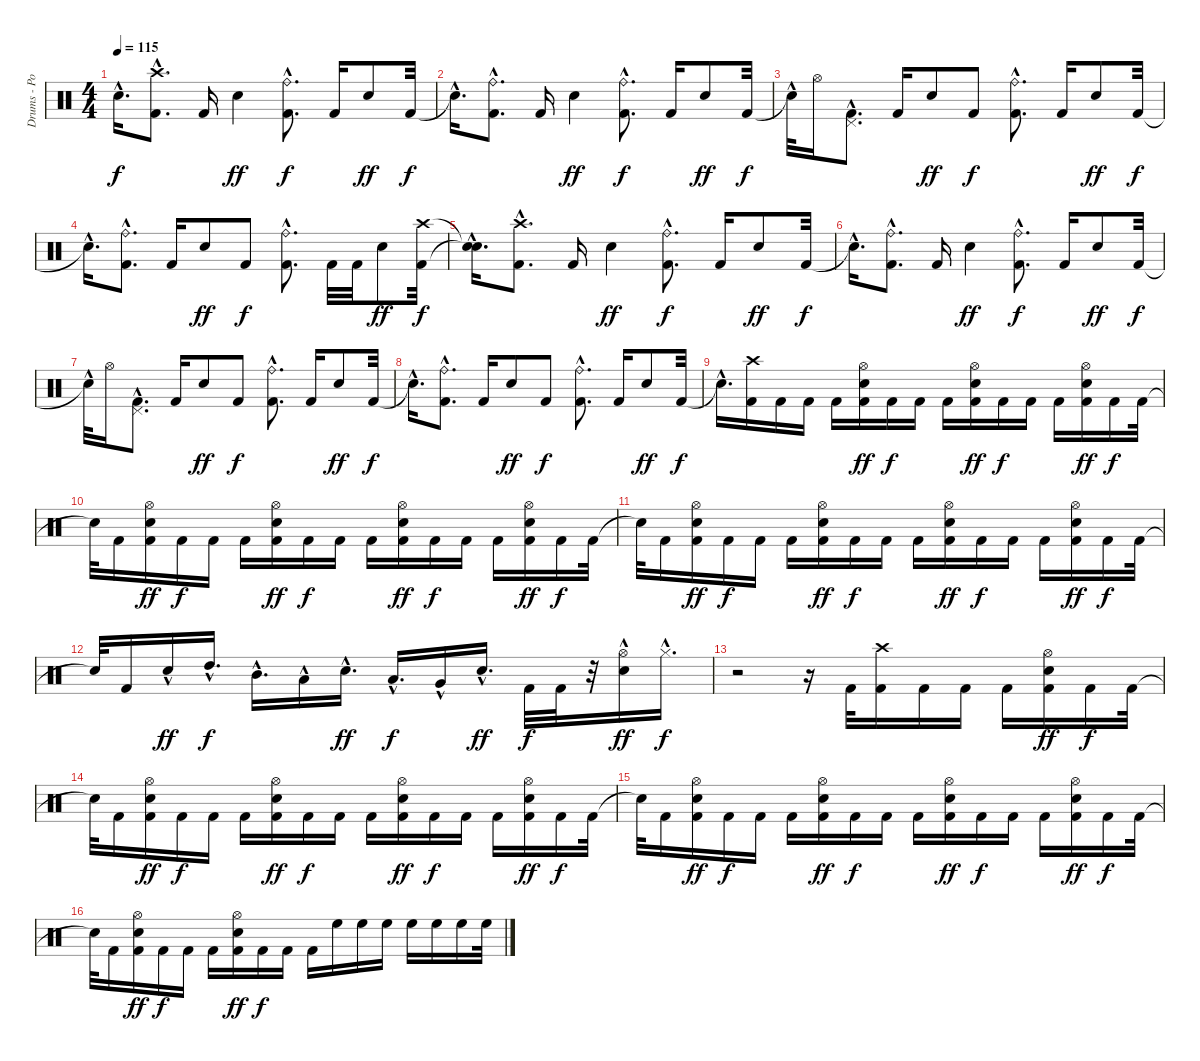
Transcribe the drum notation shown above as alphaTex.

\track ("Drums - Portnoy" "Drums - Po") {instrument percussion}
\staff {score}
\articulation defaults
\ts (4 4)
\tempo 115
\clef neutral
\ks c "Snare (hit)"{hac t}.16{d dy f}
("Kick (hit) 2"{hac} "Crash high (hit)").8{d} "Kick (hit) 2".16 "Electric Snare (hit)".4{dy ff} ("Kick (hit) 2"{hac} "Ride (bell)").8{d dy f} "Kick (hit) 2".16 "Electric Snare (hit)".8{dy ff} "Kick (hit) 2".32{dy f} |
"Snare (hit)"{hac t}.16{d} ("Kick (hit) 2"{hac} "Ride (bell)").8{d} "Kick (hit) 2".16 "Electric Snare (hit)".4{dy ff} ("Kick (hit) 2"{hac} "Ride (bell)").8{d dy f} "Kick (hit) 2".16 "Electric Snare (hit)".8{dy ff} "Kick (hit) 2".32{dy f} |
"Snare (hit)"{hac t}.32 "Hi-Hat (open)".16 ("Kick (hit) 2"{hac} "Pedal Hi-Hat (hit)").8{d} "Kick (hit) 2".16 "Electric Snare (hit)".8{dy ff} "Kick (hit) 2".8{dy f} ("Kick (hit) 2"{hac} "Ride (bell)").8{d} "Kick (hit) 2".16 "Electric Snare (hit)".8{dy ff} "Kick (hit) 2".32{dy f} |
"Snare (hit)"{hac t}.16{d} ("Kick (hit) 2"{hac} "Ride (bell)").8{d} "Kick (hit) 2".16 "Electric Snare (hit)".8{dy ff} "Kick (hit) 2".8{dy f} ("Kick (hit) 2"{hac} "Ride (bell)"{hac}).8{d} "Kick (hit) 2".32 "Kick (hit) 2".32 "Electric Snare (hit)".8{dy ff} ("Kick (hit) 2" "Crash high (hit)").32{dy f} |
("Snare (hit)"{hac t} "Snare (hit)"{hac t}).16{d} ("Crash high (hit)" "Kick (hit) 2"{hac}).8{d} "Kick (hit) 2".16 "Electric Snare (hit)".4{dy ff} ("Kick (hit) 2"{hac} "Ride (bell)").8{d dy f} "Kick (hit) 2".16 "Electric Snare (hit)".8{dy ff} "Kick (hit) 2".32{dy f} |
"Snare (hit)"{hac t}.16{d} ("Kick (hit) 2"{hac} "Ride (bell)").8{d} "Kick (hit) 2".16 "Electric Snare (hit)".4{dy ff} ("Kick (hit) 2"{hac} "Ride (bell)").8{d dy f} "Kick (hit) 2".16 "Electric Snare (hit)".8{dy ff} "Kick (hit) 2".32{dy f} |
"Snare (hit)"{hac t}.32 "Hi-Hat (open)".16 ("Kick (hit) 2"{hac} "Pedal Hi-Hat (hit)").8{d} "Kick (hit) 2".16 "Electric Snare (hit)".8{dy ff} "Kick (hit) 2".8{dy f} ("Kick (hit) 2"{hac} "Ride (bell)").8{d} "Kick (hit) 2".16 "Electric Snare (hit)".8{dy ff} "Kick (hit) 2".32{dy f} |
"Snare (hit)"{hac t}.16{d} ("Kick (hit) 2"{hac} "Ride (bell)").8{d} "Kick (hit) 2".16 "Electric Snare (hit)".8{dy ff} "Kick (hit) 2".8{dy f} ("Kick (hit) 2"{hac} "Ride (bell)").8{d} "Kick (hit) 2".16 "Electric Snare (hit)".8{dy ff} "Kick (hit) 2".32{dy f} |
"Snare (hit)"{hac t}.16{d} ("Crash high (hit)" "Kick (hit) 2").16 "Kick (hit) 2".16 "Kick (hit) 2".16 "Kick (hit) 2".16 ("Kick (hit) 2" "Hi-Hat (open)" "Electric Snare (hit)").16{dy ff} "Kick (hit) 2".16{dy f} "Kick (hit) 2".16 "Kick (hit) 2".16 ("Kick (hit) 2" "Hi-Hat (open)" "Electric Snare (hit)").16{dy ff} "Kick (hit) 2".16{dy f} "Kick (hit) 2".16 "Kick (hit) 2".16 ("Kick (hit) 2" "Hi-Hat (open)" "Electric Snare (hit)").16{dy ff} "Kick (hit) 2".16{dy f} "Kick (hit) 2".32 |
"Snare (hit)"{t}.32 "Kick (hit) 2".16 ("Kick (hit) 2" "Hi-Hat (open)" "Electric Snare (hit)").16{dy ff} "Kick (hit) 2".16{dy f} "Kick (hit) 2".16 "Kick (hit) 2".16 ("Kick (hit) 2" "Hi-Hat (open)" "Electric Snare (hit)").16{dy ff} "Kick (hit) 2".16{dy f} "Kick (hit) 2".16 "Kick (hit) 2".16 ("Kick (hit) 2" "Hi-Hat (open)" "Electric Snare (hit)").16{dy ff} "Kick (hit) 2".16{dy f} "Kick (hit) 2".16 "Kick (hit) 2".16 ("Kick (hit) 2" "Hi-Hat (open)" "Electric Snare (hit)").16{dy ff} "Kick (hit) 2".16{dy f} "Kick (hit) 2".32 |
"Snare (hit)"{t}.32 "Kick (hit) 2".16 ("Kick (hit) 2" "Hi-Hat (open)" "Electric Snare (hit)").16{dy ff} "Kick (hit) 2".16{dy f} "Kick (hit) 2".16 "Kick (hit) 2".16 ("Kick (hit) 2" "Hi-Hat (open)" "Electric Snare (hit)").16{dy ff} "Kick (hit) 2".16{dy f} "Kick (hit) 2".16 "Kick (hit) 2".16 ("Kick (hit) 2" "Hi-Hat (open)" "Electric Snare (hit)").16{dy ff} "Kick (hit) 2".16{dy f} "Kick (hit) 2".16 "Kick (hit) 2".16 ("Kick (hit) 2" "Hi-Hat (open)" "Electric Snare (hit)").16{dy ff} "Kick (hit) 2".16{dy f} "Kick (hit) 2".32 |
"Snare (hit)"{t}.32 "Kick (hit) 2".16 "Electric Snare (hit)"{hac}.16{dy ff} "High Tom (hit)"{hac}.16{d dy f} "Mid Tom (hit)"{hac}.16{d} "Low Tom (hit)"{hac}.16 "Electric Snare (hit)"{hac}.16{d dy ff} "Low Tom (hit)"{hac}.16{d dy f} "Very Low Tom (hit)"{hac}.16 "Electric Snare (hit)"{hac}.16{d dy ff} "Kick (hit) 2".32{dy f} "Kick (hit) 2".32 r.32 ("Hi-Hat (open)"{hac} "Electric Snare (hit)"{hac}).16{dy ff} "Hi-Hat (closed)"{hac}.16{d dy f} |
r.2 r.16 "Kick (hit) 2".32 ("Kick (hit) 2" "Crash high (hit)").16 "Kick (hit) 2".16 "Kick (hit) 2".16 "Kick (hit) 2".16 ("Kick (hit) 2" "Hi-Hat (open)" "Electric Snare (hit)").16{dy ff} "Kick (hit) 2".16{dy f} "Kick (hit) 2".32 |
"Snare (hit)"{t}.32 "Kick (hit) 2".16 ("Kick (hit) 2" "Hi-Hat (open)" "Electric Snare (hit)").16{dy ff} "Kick (hit) 2".16{dy f} "Kick (hit) 2".16 "Kick (hit) 2".16 ("Kick (hit) 2" "Hi-Hat (open)" "Electric Snare (hit)").16{dy ff} "Kick (hit) 2".16{dy f} "Kick (hit) 2".16 "Kick (hit) 2".16 ("Kick (hit) 2" "Hi-Hat (open)" "Electric Snare (hit)").16{dy ff} "Kick (hit) 2".16{dy f} "Kick (hit) 2".16 "Kick (hit) 2".16 ("Kick (hit) 2" "Hi-Hat (open)" "Electric Snare (hit)").16{dy ff} "Kick (hit) 2".16{dy f} "Kick (hit) 2".32 |
"Snare (hit)"{t}.32 "Kick (hit) 2".16 ("Kick (hit) 2" "Hi-Hat (open)" "Electric Snare (hit)").16{dy ff} "Kick (hit) 2".16{dy f} "Kick (hit) 2".16 "Kick (hit) 2".16 ("Kick (hit) 2" "Hi-Hat (open)" "Electric Snare (hit)").16{dy ff} "Kick (hit) 2".16{dy f} "Kick (hit) 2".16 "Kick (hit) 2".16 ("Kick (hit) 2" "Hi-Hat (open)" "Electric Snare (hit)").16{dy ff} "Kick (hit) 2".16{dy f} "Kick (hit) 2".16 "Kick (hit) 2".16 ("Kick (hit) 2" "Hi-Hat (open)" "Electric Snare (hit)").16{dy ff} "Kick (hit) 2".16{dy f} "Kick (hit) 2".32 |
"Snare (hit)"{t}.32 "Kick (hit) 2".16 ("Kick (hit) 2" "Hi-Hat (open)" "Electric Snare (hit)").16{dy ff} "Kick (hit) 2".16{dy f} "Kick (hit) 2".16 "Kick (hit) 2".16 ("Kick (hit) 2" "Hi-Hat (open)" "Electric Snare (hit)").16{dy ff} "Kick (hit) 2".16{dy f} "Kick (hit) 2".16 "Kick (hit) 2".16 "High Floor Tom (hit)".16 "High Floor Tom (hit)".16 "High Floor Tom (hit)".16 "High Floor Tom (hit)".16 "High Floor Tom (hit)".16 "High Floor Tom (hit)".16 "High Floor Tom (hit)".32
